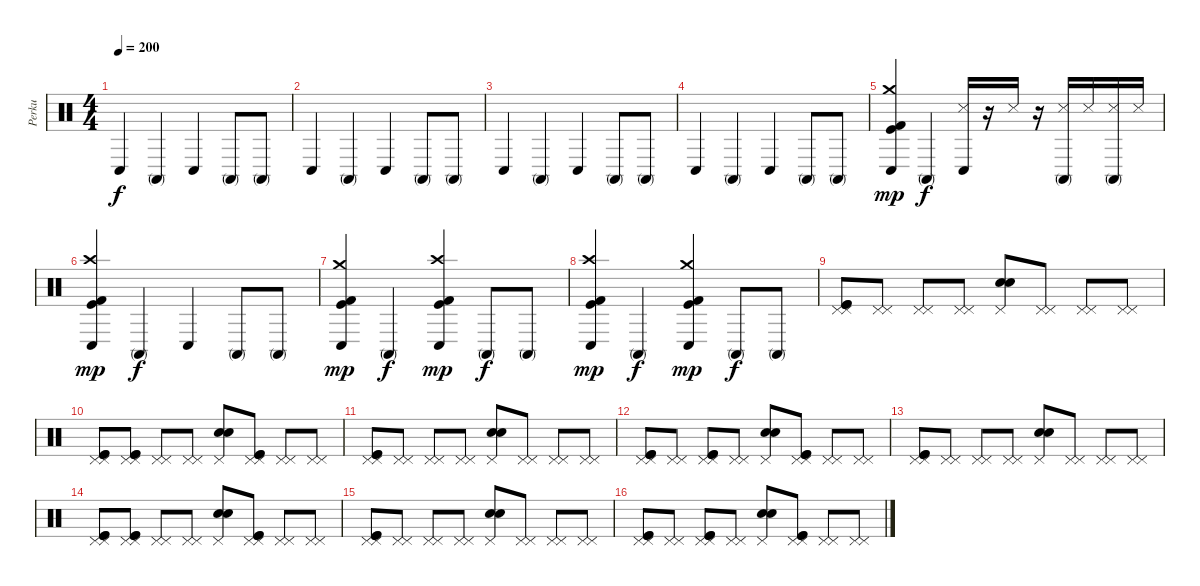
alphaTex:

\track ("Perku" "Perku") {instrument percussion}
\staff {score}
\articulation defaults
\ts (4 4)
\tempo 200
\clef neutral
\ks c "Conga low (hit)".4{dy f} "Conga high (mute)".4 "Conga low (hit)".4 "Conga high (mute)".8 "Conga high (mute)".8
|
"Conga low (hit)".4 "Conga high (mute)".4 "Conga low (hit)".4 "Conga high (mute)".8 "Conga high (mute)".8 |
"Conga low (hit)".4 "Conga high (mute)".4 "Conga low (hit)".4 "Conga high (mute)".8 "Conga high (mute)".8 |
"Conga low (hit)".4 "Conga high (mute)".4 "Conga low (hit)".4 "Conga high (mute)".8 "Conga high (mute)".8 |
("Crash medium (hit)" "Kick (hit)" "Kick (hit) 2" "Conga low (hit)").4{dy mp} "Conga high (mute)".4{dy f} ("Snare (side stick) 3" "Conga low (hit)").16 r.16 "Snare (side stick) 3".16 r.16 ("Snare (side stick) 3" "Conga high (mute)").16 "Snare (side stick) 3".16 ("Snare (side stick) 3" "Conga high (mute)").16 "Snare (side stick) 3".16 |
("Crash high (hit)" "Kick (hit) 2" "Kick (hit)" "Conga low (hit)").4{dy mp} "Conga high (mute)".4{dy f} "Conga low (hit)".4 "Conga high (mute)".8 "Conga high (mute)".8 |
("Kick (hit) 2" "Kick (hit)" "Crash medium (hit)" "Conga low (hit)").4{dy mp} "Conga high (mute)".4{dy f} ("Kick (hit) 2" "Kick (hit)" "Crash high (hit)" "Conga low (hit)").4{dy mp} "Conga high (mute)".8{dy f} "Conga high (mute)".8 |
("Kick (hit) 2" "Kick (hit)" "Crash high (hit)" "Conga low (hit)").4{dy mp} "Conga high (mute)".4{dy f} ("Kick (hit) 2" "Kick (hit)" "Crash medium (hit)" "Conga low (hit)").4{dy mp} "Conga high (mute)".8{dy f} "Conga high (mute)".8 |
("Pedal Hi-Hat (hit)" "Pedal Hi-Hat (hit)" "Kick (hit)" "Kick (hit)").8 ("Pedal Hi-Hat (hit)" "Pedal Hi-Hat (hit)").8 ("Pedal Hi-Hat (hit)" "Pedal Hi-Hat (hit)").8 ("Pedal Hi-Hat (hit)" "Pedal Hi-Hat (hit)").8 ("Pedal Hi-Hat (hit)" "Electric Snare (hit)" "Electric Snare (hit)").8 ("Pedal Hi-Hat (hit)" "Pedal Hi-Hat (hit)").8 ("Pedal Hi-Hat (hit)" "Pedal Hi-Hat (hit)").8 ("Pedal Hi-Hat (hit)" "Pedal Hi-Hat (hit)").8 |
("Pedal Hi-Hat (hit)" "Pedal Hi-Hat (hit)" "Kick (hit)" "Kick (hit)").8 ("Pedal Hi-Hat (hit)" "Pedal Hi-Hat (hit)" "Kick (hit)" "Kick (hit)").8 ("Pedal Hi-Hat (hit)" "Pedal Hi-Hat (hit)").8 ("Pedal Hi-Hat (hit)" "Pedal Hi-Hat (hit)").8 ("Pedal Hi-Hat (hit)" "Electric Snare (hit)" "Electric Snare (hit)").8 ("Pedal Hi-Hat (hit)" "Pedal Hi-Hat (hit)" "Kick (hit)" "Kick (hit)").8 ("Pedal Hi-Hat (hit)" "Pedal Hi-Hat (hit)").8 ("Pedal Hi-Hat (hit)" "Pedal Hi-Hat (hit)").8 |
("Pedal Hi-Hat (hit)" "Pedal Hi-Hat (hit)" "Kick (hit)" "Kick (hit)").8 ("Pedal Hi-Hat (hit)" "Pedal Hi-Hat (hit)").8 ("Pedal Hi-Hat (hit)" "Pedal Hi-Hat (hit)").8 ("Pedal Hi-Hat (hit)" "Pedal Hi-Hat (hit)").8 ("Pedal Hi-Hat (hit)" "Electric Snare (hit)" "Electric Snare (hit)").8 ("Pedal Hi-Hat (hit)" "Pedal Hi-Hat (hit)").8 ("Pedal Hi-Hat (hit)" "Pedal Hi-Hat (hit)").8 ("Pedal Hi-Hat (hit)" "Pedal Hi-Hat (hit)").8 |
("Pedal Hi-Hat (hit)" "Pedal Hi-Hat (hit)" "Kick (hit)" "Kick (hit)").8 ("Pedal Hi-Hat (hit)" "Pedal Hi-Hat (hit)").8 ("Pedal Hi-Hat (hit)" "Pedal Hi-Hat (hit)" "Kick (hit)" "Kick (hit)").8 ("Pedal Hi-Hat (hit)" "Pedal Hi-Hat (hit)").8 ("Pedal Hi-Hat (hit)" "Electric Snare (hit)" "Electric Snare (hit)").8 ("Pedal Hi-Hat (hit)" "Pedal Hi-Hat (hit)" "Kick (hit)" "Kick (hit)").8 ("Pedal Hi-Hat (hit)" "Pedal Hi-Hat (hit)").8 ("Pedal Hi-Hat (hit)" "Pedal Hi-Hat (hit)").8 |
("Pedal Hi-Hat (hit)" "Pedal Hi-Hat (hit)" "Kick (hit)" "Kick (hit)").8 ("Pedal Hi-Hat (hit)" "Pedal Hi-Hat (hit)").8 ("Pedal Hi-Hat (hit)" "Pedal Hi-Hat (hit)").8 ("Pedal Hi-Hat (hit)" "Pedal Hi-Hat (hit)").8 ("Pedal Hi-Hat (hit)" "Electric Snare (hit)" "Electric Snare (hit)").8 ("Pedal Hi-Hat (hit)" "Pedal Hi-Hat (hit)").8 ("Pedal Hi-Hat (hit)" "Pedal Hi-Hat (hit)").8 ("Pedal Hi-Hat (hit)" "Pedal Hi-Hat (hit)").8 |
("Pedal Hi-Hat (hit)" "Pedal Hi-Hat (hit)" "Kick (hit)" "Kick (hit)").8 ("Pedal Hi-Hat (hit)" "Pedal Hi-Hat (hit)" "Kick (hit)" "Kick (hit)").8 ("Pedal Hi-Hat (hit)" "Pedal Hi-Hat (hit)").8 ("Pedal Hi-Hat (hit)" "Pedal Hi-Hat (hit)").8 ("Pedal Hi-Hat (hit)" "Electric Snare (hit)" "Electric Snare (hit)").8 ("Pedal Hi-Hat (hit)" "Pedal Hi-Hat (hit)" "Kick (hit)" "Kick (hit)").8 ("Pedal Hi-Hat (hit)" "Pedal Hi-Hat (hit)").8 ("Pedal Hi-Hat (hit)" "Pedal Hi-Hat (hit)").8 |
("Pedal Hi-Hat (hit)" "Pedal Hi-Hat (hit)" "Kick (hit)" "Kick (hit)").8 ("Pedal Hi-Hat (hit)" "Pedal Hi-Hat (hit)").8 ("Pedal Hi-Hat (hit)" "Pedal Hi-Hat (hit)").8 ("Pedal Hi-Hat (hit)" "Pedal Hi-Hat (hit)").8 ("Pedal Hi-Hat (hit)" "Electric Snare (hit)" "Electric Snare (hit)").8 ("Pedal Hi-Hat (hit)" "Pedal Hi-Hat (hit)").8 ("Pedal Hi-Hat (hit)" "Pedal Hi-Hat (hit)").8 ("Pedal Hi-Hat (hit)" "Pedal Hi-Hat (hit)").8 |
("Pedal Hi-Hat (hit)" "Pedal Hi-Hat (hit)" "Kick (hit)" "Kick (hit)").8 ("Pedal Hi-Hat (hit)" "Pedal Hi-Hat (hit)").8 ("Pedal Hi-Hat (hit)" "Pedal Hi-Hat (hit)" "Kick (hit)" "Kick (hit)").8 ("Pedal Hi-Hat (hit)" "Pedal Hi-Hat (hit)").8 ("Pedal Hi-Hat (hit)" "Electric Snare (hit)" "Electric Snare (hit)").8 ("Pedal Hi-Hat (hit)" "Pedal Hi-Hat (hit)" "Kick (hit)" "Kick (hit)").8 ("Pedal Hi-Hat (hit)" "Pedal Hi-Hat (hit)").8 ("Pedal Hi-Hat (hit)" "Pedal Hi-Hat (hit)").8
